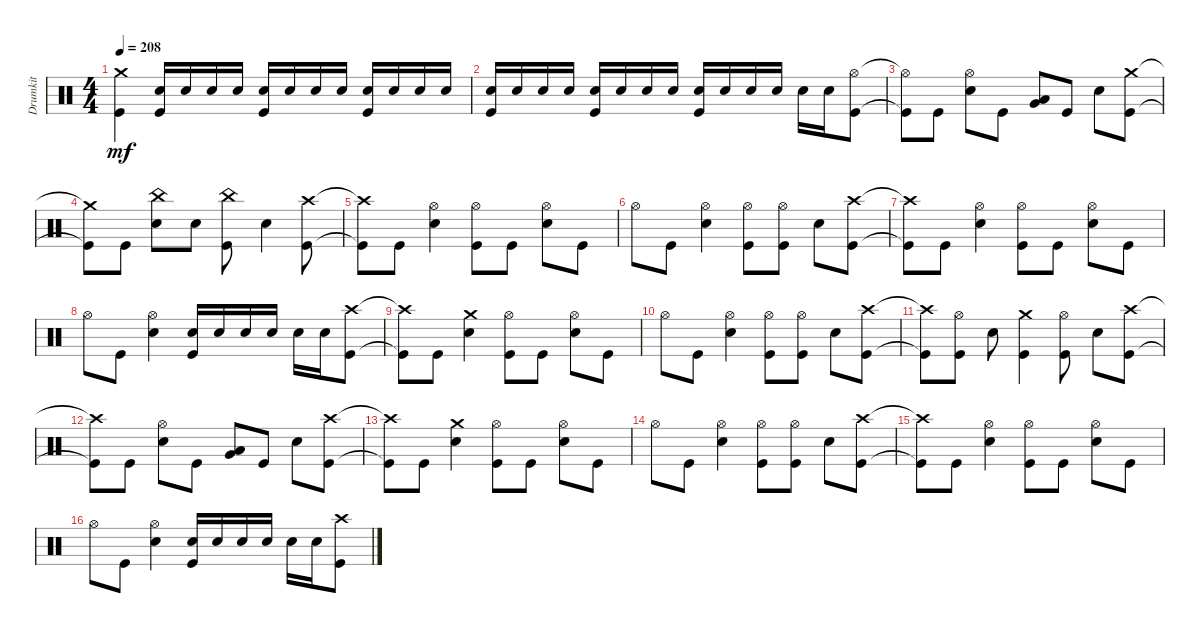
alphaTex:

\track ("Drumkit" "Drumkit") {instrument percussion}
\staff {score}
\articulation defaults
\ts (4 4)
\tempo 208
\clef neutral
\ks c
("Kick (hit)" "Crash medium (hit)").4{dy mf} ("Kick (hit)" "Snare (hit) 2").16 "Snare (hit) 2".16 "Snare (hit) 2".16 "Snare (hit) 2".16 ("Kick (hit)" "Snare (hit) 2").16 "Snare (hit) 2".16 "Snare (hit) 2".16 "Snare (hit) 2".16 ("Kick (hit)" "Snare (hit) 2").16 "Snare (hit) 2".16 "Snare (hit) 2".16 "Snare (hit) 2".16 |
("Kick (hit)" "Snare (hit) 2").16 "Snare (hit) 2".16 "Snare (hit) 2".16 "Snare (hit) 2".16 ("Kick (hit)" "Snare (hit) 2").16 "Snare (hit) 2".16 "Snare (hit) 2".16 "Snare (hit) 2".16 ("Kick (hit)" "Snare (hit) 2").16 "Snare (hit) 2".16 "Snare (hit) 2".16 "Snare (hit) 2".16 "Snare (hit) 2".16 "Snare (hit) 2".16 ("Kick (hit)" "Hi-Hat (open)").8 |
("Kick (hit)"{t} "Hi-Hat (open)"{t}).8 "Kick (hit)".8 ("Snare (hit) 2" "Hi-Hat (open)").8 "Kick (hit)".8 ("Low Tom (hit)" "Very Low Tom (hit)").8 "Kick (hit)".8 "Snare (hit) 2".8 ("Kick (hit)" "Crash medium (hit)").8 |
("Kick (hit)"{t} "Crash medium (hit)"{t}).8 "Kick (hit)".8 ("Snare (hit) 2" "China (hit)").8 "Snare (hit) 2".8 ("Kick (hit)" "China (hit)").8 "Snare (hit) 2".4 ("Kick (hit)" "Crash high (hit)").8 |
("Kick (hit)"{t} "Crash high (hit)"{t}).8 "Kick (hit)".8 ("Snare (hit) 2" "Hi-Hat (open)").4 ("Hi-Hat (open)" "Kick (hit)").8 "Kick (hit)".8 ("Snare (hit) 2" "Hi-Hat (open)").8 "Kick (hit)".8 |
"Hi-Hat (open)".8 "Kick (hit)".8 ("Hi-Hat (open)" "Snare (hit) 2").4 ("Kick (hit)" "Hi-Hat (open)").8 ("Kick (hit)" "Hi-Hat (open)").8 "Snare (hit) 2".8 ("Kick (hit)" "Crash high (hit)").8 |
("Kick (hit)"{t} "Crash high (hit)"{t}).8 "Kick (hit)".8 ("Snare (hit) 2" "Hi-Hat (open)").4 ("Kick (hit)" "Hi-Hat (open)").8 "Kick (hit)".8 ("Snare (hit) 2" "Hi-Hat (open)").8 "Kick (hit)".8 |
"Hi-Hat (open)".8 "Kick (hit)".8 ("Snare (hit) 2" "Hi-Hat (open)").4 ("Kick (hit)" "Snare (hit) 2").16 "Snare (hit) 2".16 "Snare (hit) 2".16 "Snare (hit) 2".16 "Snare (hit) 2".16 "Snare (hit) 2".16 ("Kick (hit)" "Crash high (hit)").8 |
("Kick (hit)"{t} "Crash high (hit)"{t}).8 "Kick (hit)".8 ("Snare (hit) 2" "Crash medium (hit)").4 ("Kick (hit)" "Hi-Hat (open)").8 "Kick (hit)".8 ("Snare (hit) 2" "Hi-Hat (open)").8 "Kick (hit)".8 |
"Hi-Hat (open)".8 "Kick (hit)".8 ("Snare (hit) 2" "Hi-Hat (open)").4 ("Kick (hit)" "Hi-Hat (open)").8 ("Kick (hit)" "Hi-Hat (open)").8 "Snare (hit) 2".8 ("Kick (hit)" "Crash high (hit)").8 |
("Kick (hit)"{t} "Crash high (hit)"{t}).8 ("Kick (hit)" "Hi-Hat (open)").8 "Snare (hit) 2".8 ("Kick (hit)" "Crash medium (hit)").4 ("Kick (hit)" "Hi-Hat (open)").8 "Snare (hit) 2".8 ("Kick (hit)" "Crash high (hit)").8 |
("Kick (hit)"{t} "Crash high (hit)"{t}).8 "Kick (hit)".8 ("Snare (hit) 2" "Hi-Hat (open)").8 "Kick (hit)".8 ("Low Tom (hit)" "Very Low Tom (hit)").8 "Kick (hit)".8 "Snare (hit) 2".8 ("Kick (hit)" "Crash high (hit)").8 |
("Kick (hit)"{t} "Crash high (hit)"{t}).8 "Kick (hit)".8 ("Snare (hit) 2" "Crash medium (hit)").4 ("Kick (hit)" "Hi-Hat (open)").8 "Kick (hit)".8 ("Snare (hit) 2" "Hi-Hat (open)").8 "Kick (hit)".8 |
"Hi-Hat (open)".8 "Kick (hit)".8 ("Snare (hit) 2" "Hi-Hat (open)").4 ("Kick (hit)" "Hi-Hat (open)").8 ("Kick (hit)" "Hi-Hat (open)").8 "Snare (hit) 2".8 ("Kick (hit)" "Crash high (hit)").8 |
("Kick (hit)"{t} "Crash high (hit)"{t}).8 "Kick (hit)".8 ("Snare (hit) 2" "Hi-Hat (open)").4 ("Kick (hit)" "Hi-Hat (open)").8 "Kick (hit)".8 ("Snare (hit) 2" "Hi-Hat (open)").8 "Kick (hit)".8 |
"Hi-Hat (open)".8 "Kick (hit)".8 ("Snare (hit) 2" "Hi-Hat (open)").4 ("Kick (hit)" "Snare (hit) 2").16 "Snare (hit) 2".16 "Snare (hit) 2".16 "Snare (hit) 2".16 "Snare (hit) 2".16 "Snare (hit) 2".16 ("Kick (hit)" "Crash high (hit)").8
